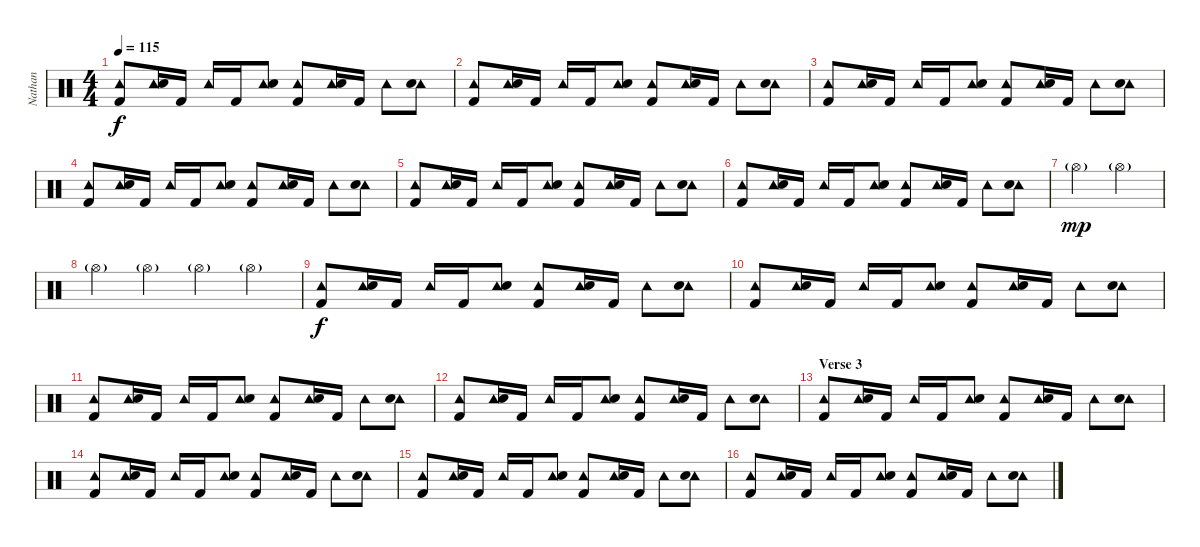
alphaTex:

\track ("Nathan" "Nathan") {instrument percussion}
\staff {score}
\articulation defaults
\ts (4 4)
\tempo 115
\clef neutral
\ks c
("Tambourine (hit)" "Kick (hit) 2").8{dy f} ("Tambourine (hit)" "Electric Snare (hit)").16 "Kick (hit) 2".16 "Tambourine (hit)".16 "Kick (hit) 2".16 ("Tambourine (hit)" "Electric Snare (hit)").8 ("Tambourine (hit)" "Kick (hit) 2").8 ("Tambourine (hit)" "Electric Snare (hit)").16 "Kick (hit) 2".16 "Tambourine (hit)".8 ("Tambourine (hit)" "Electric Snare (hit)").8 |
("Tambourine (hit)" "Kick (hit) 2").8 ("Tambourine (hit)" "Electric Snare (hit)").16 "Kick (hit) 2".16 "Tambourine (hit)".16 "Kick (hit) 2".16 ("Tambourine (hit)" "Electric Snare (hit)").8 ("Tambourine (hit)" "Kick (hit) 2").8 ("Tambourine (hit)" "Electric Snare (hit)").16 "Kick (hit) 2".16 "Tambourine (hit)".8 ("Tambourine (hit)" "Electric Snare (hit)").8 |
("Tambourine (hit)" "Kick (hit) 2").8 ("Tambourine (hit)" "Electric Snare (hit)").16 "Kick (hit) 2".16 "Tambourine (hit)".16 "Kick (hit) 2".16 ("Tambourine (hit)" "Electric Snare (hit)").8 ("Tambourine (hit)" "Kick (hit) 2").8 ("Tambourine (hit)" "Electric Snare (hit)").16 "Kick (hit) 2".16 "Tambourine (hit)".8 ("Tambourine (hit)" "Electric Snare (hit)").8 |
("Tambourine (hit)" "Kick (hit) 2").8 ("Tambourine (hit)" "Electric Snare (hit)").16 "Kick (hit) 2".16 "Tambourine (hit)".16 "Kick (hit) 2".16 ("Tambourine (hit)" "Electric Snare (hit)").8 ("Tambourine (hit)" "Kick (hit) 2").8 ("Tambourine (hit)" "Electric Snare (hit)").16 "Kick (hit) 2".16 "Tambourine (hit)".8 ("Tambourine (hit)" "Electric Snare (hit)").8 |
("Tambourine (hit)" "Kick (hit) 2").8 ("Tambourine (hit)" "Electric Snare (hit)").16 "Kick (hit) 2".16 "Tambourine (hit)".16 "Kick (hit) 2".16 ("Tambourine (hit)" "Electric Snare (hit)").8 ("Tambourine (hit)" "Kick (hit) 2").8 ("Tambourine (hit)" "Electric Snare (hit)").16 "Kick (hit) 2".16 "Tambourine (hit)".8 ("Tambourine (hit)" "Electric Snare (hit)").8 |
("Tambourine (hit)" "Kick (hit) 2").8 ("Tambourine (hit)" "Electric Snare (hit)").16 "Kick (hit) 2".16 "Tambourine (hit)".16 "Kick (hit) 2".16 ("Tambourine (hit)" "Electric Snare (hit)").8 ("Tambourine (hit)" "Kick (hit) 2").8 ("Tambourine (hit)" "Electric Snare (hit)").16 "Kick (hit) 2".16 "Tambourine (hit)".8 ("Tambourine (hit)" "Electric Snare (hit)").8 |
"Hi-Hat (open)"{g}.2{dy mp} "Hi-Hat (open)"{g}.2 |
"Hi-Hat (open)"{g}.4 "Hi-Hat (open)"{g}.4 "Hi-Hat (open)"{g}.4 "Hi-Hat (open)"{g}.4 |
("Tambourine (hit)" "Kick (hit) 2").8{dy f} ("Tambourine (hit)" "Electric Snare (hit)").16 "Kick (hit) 2".16 "Tambourine (hit)".16 "Kick (hit) 2".16 ("Tambourine (hit)" "Electric Snare (hit)").8 ("Tambourine (hit)" "Kick (hit) 2").8 ("Tambourine (hit)" "Electric Snare (hit)").16 "Kick (hit) 2".16 "Tambourine (hit)".8 ("Tambourine (hit)" "Electric Snare (hit)").8 |
("Tambourine (hit)" "Kick (hit) 2").8 ("Tambourine (hit)" "Electric Snare (hit)").16 "Kick (hit) 2".16 "Tambourine (hit)".16 "Kick (hit) 2".16 ("Tambourine (hit)" "Electric Snare (hit)").8 ("Tambourine (hit)" "Kick (hit) 2").8 ("Tambourine (hit)" "Electric Snare (hit)").16 "Kick (hit) 2".16 "Tambourine (hit)".8 ("Tambourine (hit)" "Electric Snare (hit)").8 |
("Tambourine (hit)" "Kick (hit) 2").8 ("Tambourine (hit)" "Electric Snare (hit)").16 "Kick (hit) 2".16 "Tambourine (hit)".16 "Kick (hit) 2".16 ("Tambourine (hit)" "Electric Snare (hit)").8 ("Tambourine (hit)" "Kick (hit) 2").8 ("Tambourine (hit)" "Electric Snare (hit)").16 "Kick (hit) 2".16 "Tambourine (hit)".8 ("Tambourine (hit)" "Electric Snare (hit)").8 |
("Tambourine (hit)" "Kick (hit) 2").8 ("Tambourine (hit)" "Electric Snare (hit)").16 "Kick (hit) 2".16 "Tambourine (hit)".16 "Kick (hit) 2".16 ("Tambourine (hit)" "Electric Snare (hit)").8 ("Tambourine (hit)" "Kick (hit) 2").8 ("Tambourine (hit)" "Electric Snare (hit)").16 "Kick (hit) 2".16 "Tambourine (hit)".8 ("Tambourine (hit)" "Electric Snare (hit)").8 |
\section ("" "Verse 3")
("Tambourine (hit)" "Kick (hit) 2").8 ("Tambourine (hit)" "Electric Snare (hit)").16 "Kick (hit) 2".16 "Tambourine (hit)".16 "Kick (hit) 2".16 ("Tambourine (hit)" "Electric Snare (hit)").8 ("Tambourine (hit)" "Kick (hit) 2").8 ("Tambourine (hit)" "Electric Snare (hit)").16 "Kick (hit) 2".16 "Tambourine (hit)".8 ("Tambourine (hit)" "Electric Snare (hit)").8 |
("Tambourine (hit)" "Kick (hit) 2").8 ("Tambourine (hit)" "Electric Snare (hit)").16 "Kick (hit) 2".16 "Tambourine (hit)".16 "Kick (hit) 2".16 ("Tambourine (hit)" "Electric Snare (hit)").8 ("Tambourine (hit)" "Kick (hit) 2").8 ("Tambourine (hit)" "Electric Snare (hit)").16 "Kick (hit) 2".16 "Tambourine (hit)".8 ("Tambourine (hit)" "Electric Snare (hit)").8 |
("Tambourine (hit)" "Kick (hit) 2").8 ("Tambourine (hit)" "Electric Snare (hit)").16 "Kick (hit) 2".16 "Tambourine (hit)".16 "Kick (hit) 2".16 ("Tambourine (hit)" "Electric Snare (hit)").8 ("Tambourine (hit)" "Kick (hit) 2").8 ("Tambourine (hit)" "Electric Snare (hit)").16 "Kick (hit) 2".16 "Tambourine (hit)".8 ("Tambourine (hit)" "Electric Snare (hit)").8 |
("Tambourine (hit)" "Kick (hit) 2").8 ("Tambourine (hit)" "Electric Snare (hit)").16 "Kick (hit) 2".16 "Tambourine (hit)".16 "Kick (hit) 2".16 ("Tambourine (hit)" "Electric Snare (hit)").8 ("Tambourine (hit)" "Kick (hit) 2").8 ("Tambourine (hit)" "Electric Snare (hit)").16 "Kick (hit) 2".16 "Tambourine (hit)".8 ("Tambourine (hit)" "Electric Snare (hit)").8
